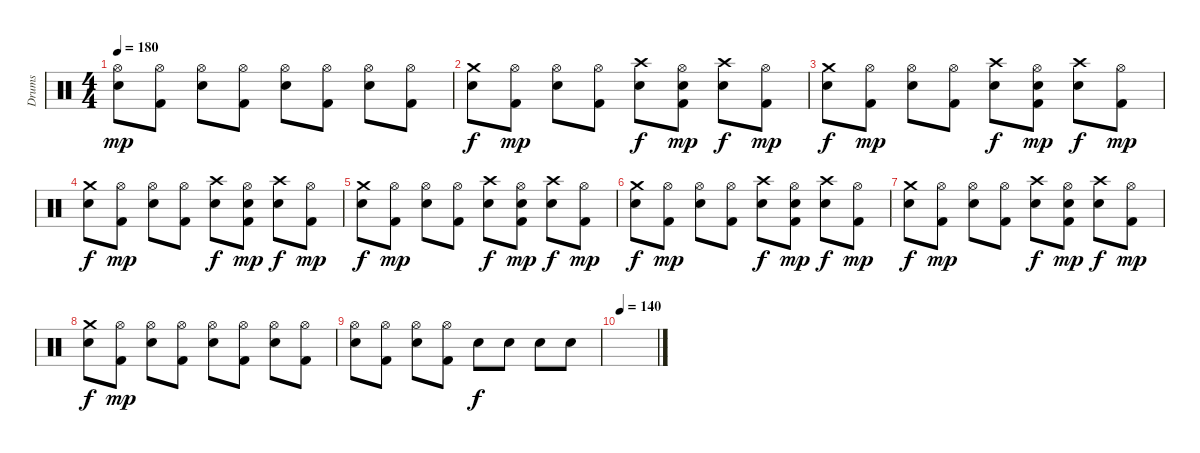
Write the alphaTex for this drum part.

\track ("Drums" "Drums") {instrument percussion}
\staff {score}
\articulation defaults
\ts (4 4)
\tempo 180
\clef neutral
\ks c
("Hi-Hat (open)" "Snare (hit) 2").8{dy mp} ("Hi-Hat (open)" "Kick (hit) 2").8 ("Hi-Hat (open)" "Snare (hit) 2").8 ("Hi-Hat (open)" "Kick (hit) 2").8 ("Hi-Hat (open)" "Snare (hit) 2").8 ("Hi-Hat (open)" "Kick (hit) 2").8 ("Hi-Hat (open)" "Snare (hit) 2").8 ("Hi-Hat (open)" "Kick (hit) 2").8 |
("Crash medium (hit)" "Snare (hit) 2").8{dy f} ("Hi-Hat (open)" "Kick (hit) 2").8{dy mp} ("Hi-Hat (open)" "Snare (hit) 2").8 ("Hi-Hat (open)" "Kick (hit) 2").8 ("Crash high (hit)" "Snare (hit) 2").8{dy f} ("Hi-Hat (open)" "Snare (hit) 2" "Kick (hit) 2").8{dy mp} ("Crash high (hit)" "Snare (hit) 2").8{dy f} ("Hi-Hat (open)" "Kick (hit) 2").8{dy mp} |
("Crash medium (hit)" "Snare (hit) 2").8{dy f} ("Hi-Hat (open)" "Kick (hit) 2").8{dy mp} ("Hi-Hat (open)" "Snare (hit) 2").8 ("Hi-Hat (open)" "Kick (hit) 2").8 ("Crash high (hit)" "Snare (hit) 2").8{dy f} ("Hi-Hat (open)" "Snare (hit) 2" "Kick (hit) 2").8{dy mp} ("Crash high (hit)" "Snare (hit) 2").8{dy f} ("Hi-Hat (open)" "Kick (hit) 2").8{dy mp} |
("Crash medium (hit)" "Snare (hit) 2").8{dy f} ("Hi-Hat (open)" "Kick (hit) 2").8{dy mp} ("Hi-Hat (open)" "Snare (hit) 2").8 ("Hi-Hat (open)" "Kick (hit) 2").8 ("Crash high (hit)" "Snare (hit) 2").8{dy f} ("Hi-Hat (open)" "Snare (hit) 2" "Kick (hit) 2").8{dy mp} ("Crash high (hit)" "Snare (hit) 2").8{dy f} ("Hi-Hat (open)" "Kick (hit) 2").8{dy mp} |
("Crash medium (hit)" "Snare (hit) 2").8{dy f} ("Hi-Hat (open)" "Kick (hit) 2").8{dy mp} ("Hi-Hat (open)" "Snare (hit) 2").8 ("Hi-Hat (open)" "Kick (hit) 2").8 ("Crash high (hit)" "Snare (hit) 2").8{dy f} ("Hi-Hat (open)" "Snare (hit) 2" "Kick (hit) 2").8{dy mp} ("Crash high (hit)" "Snare (hit) 2").8{dy f} ("Hi-Hat (open)" "Kick (hit) 2").8{dy mp} |
("Crash medium (hit)" "Snare (hit) 2").8{dy f} ("Hi-Hat (open)" "Kick (hit) 2").8{dy mp} ("Hi-Hat (open)" "Snare (hit) 2").8 ("Hi-Hat (open)" "Kick (hit) 2").8 ("Crash high (hit)" "Snare (hit) 2").8{dy f} ("Hi-Hat (open)" "Snare (hit) 2" "Kick (hit) 2").8{dy mp} ("Crash high (hit)" "Snare (hit) 2").8{dy f} ("Hi-Hat (open)" "Kick (hit) 2").8{dy mp} |
("Crash medium (hit)" "Snare (hit) 2").8{dy f} ("Hi-Hat (open)" "Kick (hit) 2").8{dy mp} ("Hi-Hat (open)" "Snare (hit) 2").8 ("Hi-Hat (open)" "Kick (hit) 2").8 ("Crash high (hit)" "Snare (hit) 2").8{dy f} ("Hi-Hat (open)" "Snare (hit) 2" "Kick (hit) 2").8{dy mp} ("Crash high (hit)" "Snare (hit) 2").8{dy f} ("Hi-Hat (open)" "Kick (hit) 2").8{dy mp} |
("Crash medium (hit)" "Snare (hit) 2").8{dy f} ("Hi-Hat (open)" "Kick (hit) 2").8{dy mp} ("Hi-Hat (open)" "Snare (hit) 2").8 ("Hi-Hat (open)" "Kick (hit) 2").8 ("Hi-Hat (open)" "Snare (hit) 2").8 ("Hi-Hat (open)" "Kick (hit) 2").8 ("Hi-Hat (open)" "Snare (hit) 2").8 ("Hi-Hat (open)" "Kick (hit) 2").8 |
("Hi-Hat (open)" "Snare (hit) 2").8 ("Hi-Hat (open)" "Kick (hit) 2").8 ("Hi-Hat (open)" "Snare (hit) 2").8 ("Hi-Hat (open)" "Kick (hit) 2").8 "Snare (hit) 2".8{dy f} "Snare (hit) 2".8 "Snare (hit) 2".8 "Snare (hit) 2".8 |
\tempo 140
